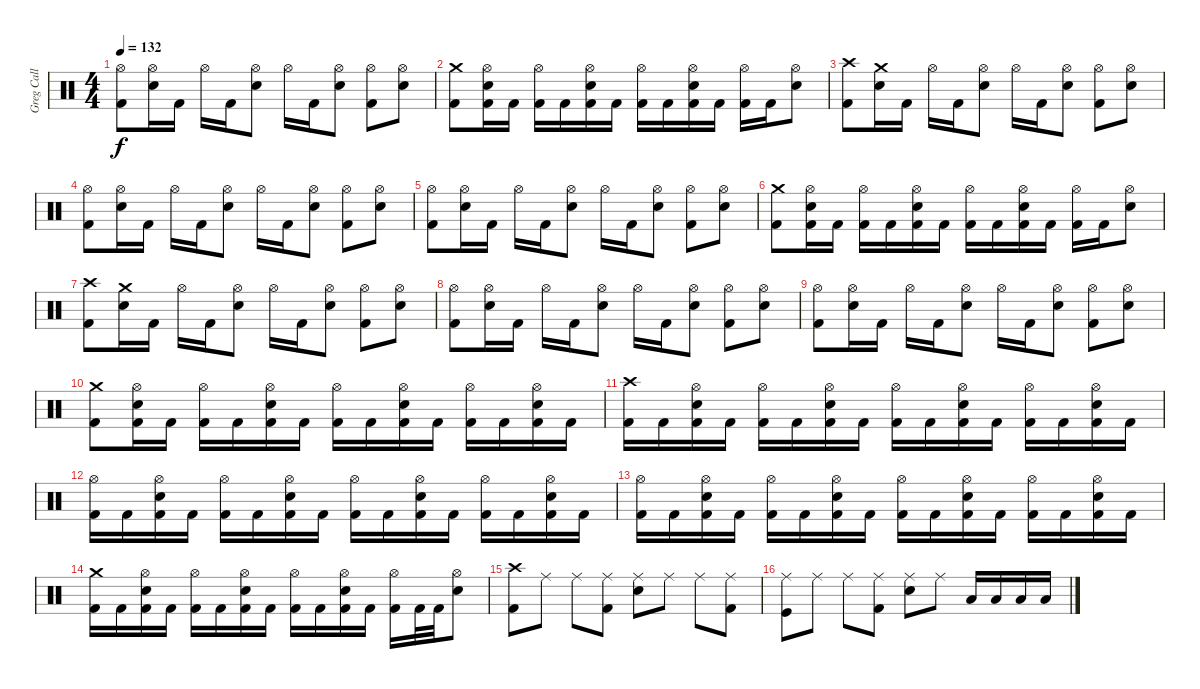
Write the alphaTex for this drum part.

\track ("Greg Call (Drums)" "Greg Call ") {instrument percussion}
\staff {score}
\articulation defaults
\ts (4 4)
\tempo 132
\clef neutral
\ks c
("Hi-Hat (open)" "Kick (hit) 2").8{dy f} ("Hi-Hat (open)" "Snare (hit) 2").16 "Kick (hit) 2".16 "Hi-Hat (open)".16 "Kick (hit) 2".16 ("Hi-Hat (open)" "Snare (hit) 2").8 "Hi-Hat (open)".16 "Kick (hit) 2".16 ("Hi-Hat (open)" "Snare (hit) 2").8 ("Hi-Hat (open)" "Kick (hit) 2").8 ("Hi-Hat (open)" "Snare (hit) 2").8 |
("Crash medium (hit)" "Kick (hit) 2").8 ("Hi-Hat (open)" "Snare (hit) 2" "Kick (hit) 2").16 "Kick (hit) 2".16 ("Hi-Hat (open)" "Kick (hit) 2").16 "Kick (hit) 2".16 ("Hi-Hat (open)" "Snare (hit) 2" "Kick (hit) 2").16 "Kick (hit) 2".16 ("Hi-Hat (open)" "Kick (hit) 2").16 "Kick (hit) 2".16 ("Hi-Hat (open)" "Snare (hit) 2" "Kick (hit) 2").16 "Kick (hit) 2".16 ("Hi-Hat (open)" "Kick (hit) 2").16 "Kick (hit) 2".16 ("Hi-Hat (open)" "Snare (hit) 2").8 |
("Crash high (hit)" "Kick (hit) 2").8 ("Crash medium (hit)" "Snare (hit) 2").16 "Kick (hit) 2".16 "Hi-Hat (open)".16 "Kick (hit) 2".16 ("Hi-Hat (open)" "Snare (hit) 2").8 "Hi-Hat (open)".16 "Kick (hit) 2".16 ("Hi-Hat (open)" "Snare (hit) 2").8 ("Hi-Hat (open)" "Kick (hit) 2").8 ("Hi-Hat (open)" "Snare (hit) 2").8 |
("Hi-Hat (open)" "Kick (hit) 2").8 ("Hi-Hat (open)" "Snare (hit) 2").16 "Kick (hit) 2".16 "Hi-Hat (open)".16 "Kick (hit) 2".16 ("Hi-Hat (open)" "Snare (hit) 2").8 "Hi-Hat (open)".16 "Kick (hit) 2".16 ("Hi-Hat (open)" "Snare (hit) 2").8 ("Hi-Hat (open)" "Kick (hit) 2").8 ("Hi-Hat (open)" "Snare (hit) 2").8 |
("Hi-Hat (open)" "Kick (hit) 2").8 ("Hi-Hat (open)" "Snare (hit) 2").16 "Kick (hit) 2".16 "Hi-Hat (open)".16 "Kick (hit) 2".16 ("Hi-Hat (open)" "Snare (hit) 2").8 "Hi-Hat (open)".16 "Kick (hit) 2".16 ("Hi-Hat (open)" "Snare (hit) 2").8 ("Hi-Hat (open)" "Kick (hit) 2").8 ("Hi-Hat (open)" "Snare (hit) 2").8 |
("Crash medium (hit)" "Kick (hit) 2").8 ("Hi-Hat (open)" "Snare (hit) 2" "Kick (hit) 2").16 "Kick (hit) 2".16 ("Hi-Hat (open)" "Kick (hit) 2").16 "Kick (hit) 2".16 ("Hi-Hat (open)" "Snare (hit) 2" "Kick (hit) 2").16 "Kick (hit) 2".16 ("Hi-Hat (open)" "Kick (hit) 2").16 "Kick (hit) 2".16 ("Hi-Hat (open)" "Snare (hit) 2" "Kick (hit) 2").16 "Kick (hit) 2".16 ("Hi-Hat (open)" "Kick (hit) 2").16 "Kick (hit) 2".16 ("Hi-Hat (open)" "Snare (hit) 2").8 |
("Crash high (hit)" "Kick (hit) 2").8 ("Crash medium (hit)" "Snare (hit) 2").16 "Kick (hit) 2".16 "Hi-Hat (open)".16 "Kick (hit) 2".16 ("Hi-Hat (open)" "Snare (hit) 2").8 "Hi-Hat (open)".16 "Kick (hit) 2".16 ("Hi-Hat (open)" "Snare (hit) 2").8 ("Hi-Hat (open)" "Kick (hit) 2").8 ("Hi-Hat (open)" "Snare (hit) 2").8 |
("Hi-Hat (open)" "Kick (hit) 2").8 ("Hi-Hat (open)" "Snare (hit) 2").16 "Kick (hit) 2".16 "Hi-Hat (open)".16 "Kick (hit) 2".16 ("Hi-Hat (open)" "Snare (hit) 2").8 "Hi-Hat (open)".16 "Kick (hit) 2".16 ("Hi-Hat (open)" "Snare (hit) 2").8 ("Hi-Hat (open)" "Kick (hit) 2").8 ("Hi-Hat (open)" "Snare (hit) 2").8 |
("Hi-Hat (open)" "Kick (hit) 2").8 ("Hi-Hat (open)" "Snare (hit) 2").16 "Kick (hit) 2".16 "Hi-Hat (open)".16 "Kick (hit) 2".16 ("Hi-Hat (open)" "Snare (hit) 2").8 "Hi-Hat (open)".16 "Kick (hit) 2".16 ("Hi-Hat (open)" "Snare (hit) 2").8 ("Hi-Hat (open)" "Kick (hit) 2").8 ("Hi-Hat (open)" "Snare (hit) 2").8 |
("Crash medium (hit)" "Kick (hit) 2").8 ("Hi-Hat (open)" "Snare (hit) 2" "Kick (hit) 2").16 "Kick (hit) 2".16 ("Hi-Hat (open)" "Kick (hit) 2").16 "Kick (hit) 2".16 ("Hi-Hat (open)" "Snare (hit) 2" "Kick (hit) 2").16 "Kick (hit) 2".16 ("Hi-Hat (open)" "Kick (hit) 2").16 "Kick (hit) 2".16 ("Hi-Hat (open)" "Snare (hit) 2" "Kick (hit) 2").16 "Kick (hit) 2".16 ("Hi-Hat (open)" "Kick (hit) 2").16 "Kick (hit) 2".16 ("Hi-Hat (open)" "Snare (hit) 2" "Kick (hit) 2").16 "Kick (hit) 2".16 |
("Crash high (hit)" "Kick (hit) 2").16 "Kick (hit) 2".16 ("Hi-Hat (open)" "Snare (hit) 2" "Kick (hit) 2").16 "Kick (hit) 2".16 ("Hi-Hat (open)" "Kick (hit) 2").16 "Kick (hit) 2".16 ("Hi-Hat (open)" "Snare (hit) 2" "Kick (hit) 2").16 "Kick (hit) 2".16 ("Hi-Hat (open)" "Kick (hit) 2").16 "Kick (hit) 2".16 ("Hi-Hat (open)" "Snare (hit) 2" "Kick (hit) 2").16 "Kick (hit) 2".16 ("Hi-Hat (open)" "Kick (hit) 2").16 "Kick (hit) 2".16 ("Hi-Hat (open)" "Snare (hit) 2" "Kick (hit) 2").16 "Kick (hit) 2".16 |
("Hi-Hat (open)" "Kick (hit) 2").16 "Kick (hit) 2".16 ("Hi-Hat (open)" "Snare (hit) 2" "Kick (hit) 2").16 "Kick (hit) 2".16 ("Hi-Hat (open)" "Kick (hit) 2").16 "Kick (hit) 2".16 ("Hi-Hat (open)" "Snare (hit) 2" "Kick (hit) 2").16 "Kick (hit) 2".16 ("Hi-Hat (open)" "Kick (hit) 2").16 "Kick (hit) 2".16 ("Hi-Hat (open)" "Snare (hit) 2" "Kick (hit) 2").16 "Kick (hit) 2".16 ("Hi-Hat (open)" "Kick (hit) 2").16 "Kick (hit) 2".16 ("Hi-Hat (open)" "Snare (hit) 2" "Kick (hit) 2").16 "Kick (hit) 2".16 |
("Hi-Hat (open)" "Kick (hit) 2").16 "Kick (hit) 2".16 ("Hi-Hat (open)" "Snare (hit) 2" "Kick (hit) 2").16 "Kick (hit) 2".16 ("Hi-Hat (open)" "Kick (hit) 2").16 "Kick (hit) 2".16 ("Hi-Hat (open)" "Snare (hit) 2" "Kick (hit) 2").16 "Kick (hit) 2".16 ("Hi-Hat (open)" "Kick (hit) 2").16 "Kick (hit) 2".16 ("Hi-Hat (open)" "Snare (hit) 2" "Kick (hit) 2").16 "Kick (hit) 2".16 ("Hi-Hat (open)" "Kick (hit) 2").16 "Kick (hit) 2".16 ("Hi-Hat (open)" "Snare (hit) 2" "Kick (hit) 2").16 "Kick (hit) 2".16 |
("Crash medium (hit)" "Kick (hit) 2").16 "Kick (hit) 2".16 ("Hi-Hat (open)" "Snare (hit) 2" "Kick (hit) 2").16 "Kick (hit) 2".16 ("Hi-Hat (open)" "Kick (hit) 2").16 "Kick (hit) 2".16 ("Hi-Hat (open)" "Snare (hit) 2" "Kick (hit) 2").16 "Kick (hit) 2".16 ("Hi-Hat (open)" "Kick (hit) 2").16 "Kick (hit) 2".16 ("Hi-Hat (open)" "Snare (hit) 2" "Kick (hit) 2").16 "Kick (hit) 2".16 ("Hi-Hat (open)" "Kick (hit) 2").16 "Kick (hit) 2".32 "Kick (hit) 2".32 ("Hi-Hat (open)" "Snare (hit) 2").8 |
("Crash high (hit)" "Kick (hit) 2").8 "Ride (middle)".8 "Ride (middle)".8 ("Ride (middle)" "Kick (hit) 2").8 ("Ride (middle)" "Snare (hit) 2").8 "Ride (middle)".8 "Ride (middle)".8 ("Ride (middle)" "Kick (hit) 2").8 |
("Ride (middle)" "Kick (hit)").8 "Ride (middle)".8 "Ride (middle)".8 ("Ride (middle)" "Kick (hit) 2").8 ("Ride (middle)" "Snare (hit) 2").8 "Ride (middle)".8 "Low Tom (hit)".16 "Low Tom (hit)".16 "Low Tom (hit)".16 "Low Tom (hit)".16
